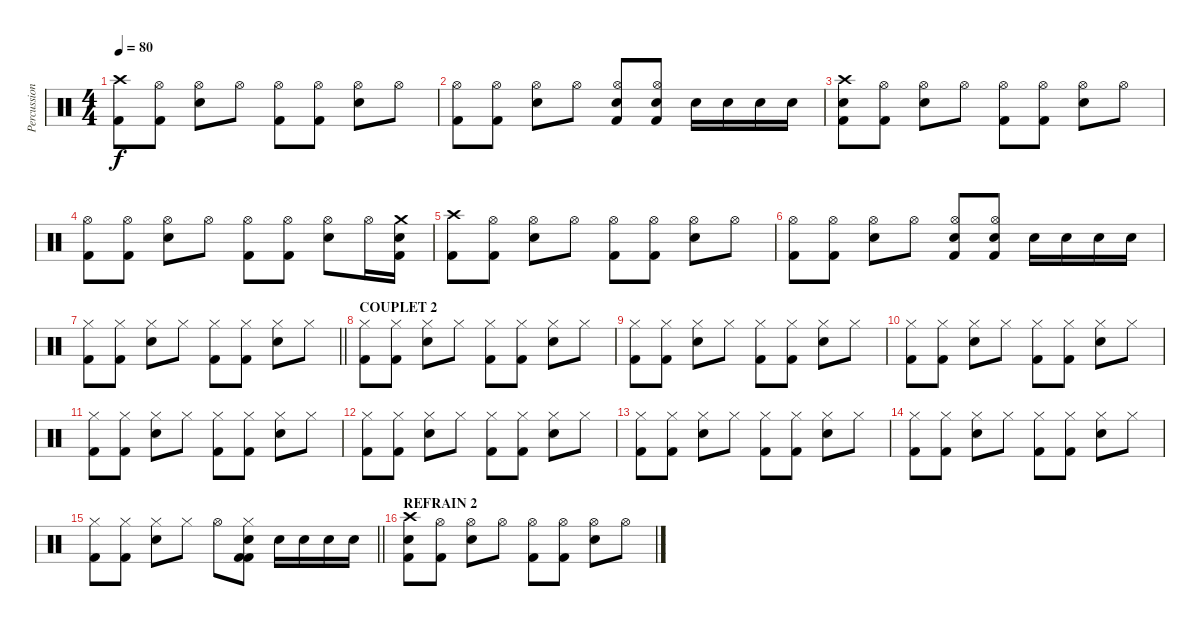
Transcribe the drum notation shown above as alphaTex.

\track ("Percussions" "Percussion") {instrument percussion}
\staff {score}
\articulation defaults
\ts (4 4)
\tempo 80
\clef neutral
\ks c
("Crash high (hit)" "Kick (hit) 2").8{dy f} ("Hi-Hat (open)" "Kick (hit) 2").8 ("Hi-Hat (open)" "Snare (hit) 2").8 "Hi-Hat (open)".8 ("Hi-Hat (open)" "Kick (hit) 2").8 ("Hi-Hat (open)" "Kick (hit) 2").8 ("Hi-Hat (open)" "Snare (hit) 2").8 "Hi-Hat (open)".8 |
("Hi-Hat (open)" "Kick (hit) 2").8 ("Hi-Hat (open)" "Kick (hit) 2").8 ("Hi-Hat (open)" "Snare (hit) 2").8 "Hi-Hat (open)".8 ("Hi-Hat (open)" "Snare (hit) 2" "Kick (hit) 2").8 ("Hi-Hat (open)" "Snare (hit) 2" "Kick (hit) 2").8 "Snare (hit) 2".16 "Snare (hit) 2".16 "Snare (hit) 2".16 "Snare (hit) 2".16 |
("Crash high (hit)" "Snare (hit) 2" "Kick (hit) 2").8 ("Hi-Hat (open)" "Kick (hit) 2").8 ("Hi-Hat (open)" "Snare (hit) 2").8 "Hi-Hat (open)".8 ("Hi-Hat (open)" "Kick (hit) 2").8 ("Hi-Hat (open)" "Kick (hit) 2").8 ("Hi-Hat (open)" "Snare (hit) 2").8 "Hi-Hat (open)".8 |
("Hi-Hat (open)" "Kick (hit) 2").8 ("Hi-Hat (open)" "Kick (hit) 2").8 ("Hi-Hat (open)" "Snare (hit) 2").8 "Hi-Hat (open)".8 ("Hi-Hat (open)" "Kick (hit) 2").8 ("Hi-Hat (open)" "Kick (hit) 2").8 ("Hi-Hat (open)" "Snare (hit) 2").8 "Hi-Hat (open)".16 ("Crash medium (hit)" "Snare (hit) 2" "Kick (hit) 2").16 |
("Crash high (hit)" "Kick (hit) 2").8 ("Hi-Hat (open)" "Kick (hit) 2").8 ("Hi-Hat (open)" "Snare (hit) 2").8 "Hi-Hat (open)".8 ("Hi-Hat (open)" "Kick (hit) 2").8 ("Hi-Hat (open)" "Kick (hit) 2").8 ("Hi-Hat (open)" "Snare (hit) 2").8 "Hi-Hat (open)".8 |
("Hi-Hat (open)" "Kick (hit) 2").8 ("Hi-Hat (open)" "Kick (hit) 2").8 ("Hi-Hat (open)" "Snare (hit) 2").8 "Hi-Hat (open)".8 ("Hi-Hat (open)" "Snare (hit) 2" "Kick (hit) 2").8 ("Hi-Hat (open)" "Snare (hit) 2" "Kick (hit) 2").8 "Snare (hit) 2".16 "Snare (hit) 2".16 "Snare (hit) 2".16 "Snare (hit) 2".16 |
\barLineRight lightlight
("Hi-Hat (closed)" "Kick (hit) 2").8 ("Hi-Hat (closed)" "Kick (hit) 2").8 ("Hi-Hat (closed)" "Snare (hit) 2").8 "Hi-Hat (closed)".8 ("Hi-Hat (closed)" "Kick (hit) 2").8 ("Hi-Hat (closed)" "Kick (hit) 2").8 ("Hi-Hat (closed)" "Snare (hit) 2").8 "Hi-Hat (closed)".8 |
\section ("" "COUPLET 2")
("Hi-Hat (closed)" "Kick (hit) 2").8 ("Hi-Hat (closed)" "Kick (hit) 2").8 ("Hi-Hat (closed)" "Snare (hit) 2").8 "Hi-Hat (closed)".8 ("Hi-Hat (closed)" "Kick (hit) 2").8 ("Hi-Hat (closed)" "Kick (hit) 2").8 ("Hi-Hat (closed)" "Snare (hit) 2").8 "Hi-Hat (closed)".8 |
("Hi-Hat (closed)" "Kick (hit) 2").8 ("Hi-Hat (closed)" "Kick (hit) 2").8 ("Hi-Hat (closed)" "Snare (hit) 2").8 "Hi-Hat (closed)".8 ("Hi-Hat (closed)" "Kick (hit) 2").8 ("Hi-Hat (closed)" "Kick (hit) 2").8 ("Hi-Hat (closed)" "Snare (hit) 2").8 "Hi-Hat (closed)".8 |
("Hi-Hat (closed)" "Kick (hit) 2").8 ("Hi-Hat (closed)" "Kick (hit) 2").8 ("Hi-Hat (closed)" "Snare (hit) 2").8 "Hi-Hat (closed)".8 ("Hi-Hat (closed)" "Kick (hit) 2").8 ("Hi-Hat (closed)" "Kick (hit) 2").8 ("Hi-Hat (closed)" "Snare (hit) 2").8 "Hi-Hat (closed)".8 |
("Hi-Hat (closed)" "Kick (hit) 2").8 ("Hi-Hat (closed)" "Kick (hit) 2").8 ("Hi-Hat (closed)" "Snare (hit) 2").8 "Hi-Hat (closed)".8 ("Hi-Hat (closed)" "Kick (hit) 2").8 ("Hi-Hat (closed)" "Kick (hit) 2").8 ("Hi-Hat (closed)" "Snare (hit) 2").8 "Hi-Hat (closed)".8 |
("Hi-Hat (closed)" "Kick (hit) 2").8 ("Hi-Hat (closed)" "Kick (hit) 2").8 ("Hi-Hat (closed)" "Snare (hit) 2").8 "Hi-Hat (closed)".8 ("Hi-Hat (closed)" "Kick (hit) 2").8 ("Hi-Hat (closed)" "Kick (hit) 2").8 ("Hi-Hat (closed)" "Snare (hit) 2").8 "Hi-Hat (closed)".8 |
("Hi-Hat (closed)" "Kick (hit) 2").8 ("Hi-Hat (closed)" "Kick (hit) 2").8 ("Hi-Hat (closed)" "Snare (hit) 2").8 "Hi-Hat (closed)".8 ("Hi-Hat (closed)" "Kick (hit) 2").8 ("Hi-Hat (closed)" "Kick (hit) 2").8 ("Hi-Hat (closed)" "Snare (hit) 2").8 "Hi-Hat (closed)".8 |
("Hi-Hat (closed)" "Kick (hit) 2").8 ("Hi-Hat (closed)" "Kick (hit) 2").8 ("Hi-Hat (closed)" "Snare (hit) 2").8 "Hi-Hat (closed)".8 ("Hi-Hat (closed)" "Kick (hit) 2").8 ("Hi-Hat (closed)" "Kick (hit) 2").8 ("Hi-Hat (closed)" "Snare (hit) 2").8 "Hi-Hat (closed)".8 |
\barLineRight lightlight
("Hi-Hat (closed)" "Kick (hit) 2").8 ("Hi-Hat (closed)" "Kick (hit) 2").8 ("Hi-Hat (closed)" "Snare (hit) 2").8 "Hi-Hat (closed)".8 "Hi-Hat (open)".8 ("Hi-Hat (closed)" "Snare (hit) 2" "Kick (hit) 2" "Kick (hit) 2").8 "Snare (hit) 2".16 "Snare (hit) 2".16 "Snare (hit) 2".16 "Snare (hit) 2".16 |
\section ("" "REFRAIN 2")
("Crash high (hit)" "Snare (hit) 2" "Kick (hit) 2").8 ("Hi-Hat (open)" "Kick (hit) 2").8 ("Hi-Hat (open)" "Snare (hit) 2").8 "Hi-Hat (open)".8 ("Hi-Hat (open)" "Kick (hit) 2").8 ("Hi-Hat (open)" "Kick (hit) 2").8 ("Hi-Hat (open)" "Snare (hit) 2").8 "Hi-Hat (open)".8
